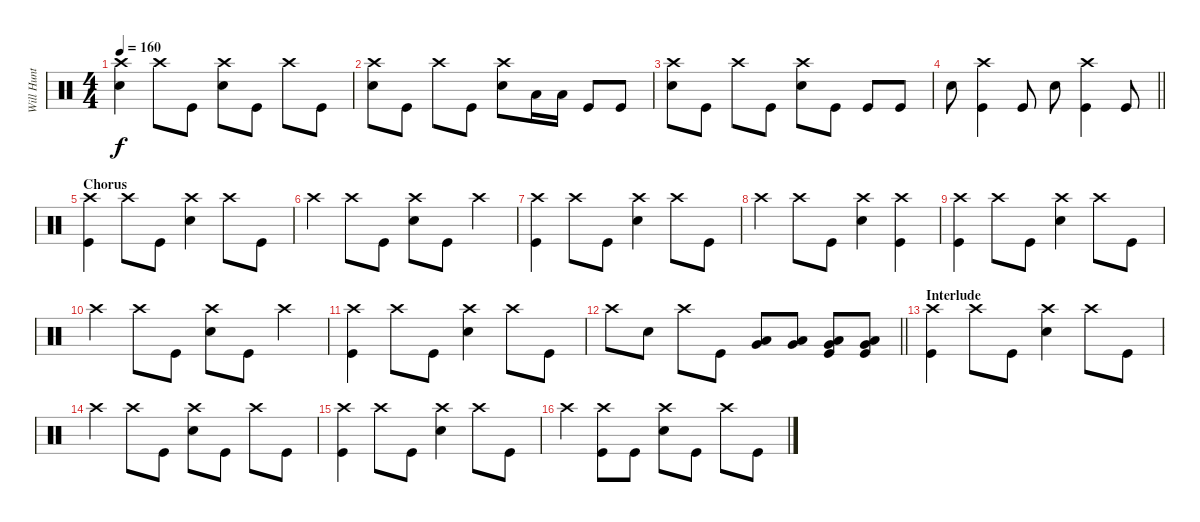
\track ("Will Hunt" "Will Hunt") {instrument percussion}
\staff {score}
\articulation defaults
\ts (4 4)
\tempo 160
\clef neutral
\ks c
("Crash high (hit)" "Snare (hit) 2").4{dy f} "Crash high (hit)".8 "Kick (hit)".8 ("Crash high (hit)" "Snare (hit) 2").8 "Kick (hit)".8 "Crash high (hit)".8 "Kick (hit)".8 |
("Crash high (hit)" "Snare (hit) 2").8 "Kick (hit)".8 "Crash high (hit)".8 "Kick (hit)".8 ("Crash high (hit)" "Snare (hit) 2").8 "Low Floor Tom (hit)".16 "Low Floor Tom (hit)".16 "Kick (hit)".8 "Kick (hit)".8 |
("Crash high (hit)" "Snare (hit) 2").8 "Kick (hit)".8 "Crash high (hit)".8 "Kick (hit)".8 ("Crash high (hit)" "Snare (hit) 2").8 "Kick (hit)".8 "Kick (hit)".8 "Kick (hit)".8 |
\barLineRight lightlight "Snare (hit) 2".8
("Crash high (hit)" "Kick (hit)").4 "Kick (hit)".8 "Snare (hit) 2".8 ("Crash high (hit)" "Kick (hit)").4 "Kick (hit)".8 |
\section ("" "Chorus")
("Crash high (hit)" "Kick (hit)").4 "Crash high (hit)".8 "Kick (hit)".8 ("Crash high (hit)" "Snare (hit) 2").4 "Crash high (hit)".8 "Kick (hit)".8 |
"Crash high (hit)".4 "Crash high (hit)".8 "Kick (hit)".8 ("Crash high (hit)" "Snare (hit) 2").8 "Kick (hit)".8 "Crash high (hit)".4 |
("Crash high (hit)" "Kick (hit)").4 "Crash high (hit)".8 "Kick (hit)".8 ("Crash high (hit)" "Snare (hit) 2").4 "Crash high (hit)".8 "Kick (hit)".8 |
"Crash high (hit)".4 "Crash high (hit)".8 "Kick (hit)".8 ("Crash high (hit)" "Snare (hit) 2").4 ("Crash high (hit)" "Kick (hit)").4 |
("Crash high (hit)" "Kick (hit)").4 "Crash high (hit)".8 "Kick (hit)".8 ("Crash high (hit)" "Snare (hit) 2").4 "Crash high (hit)".8 "Kick (hit)".8 |
"Crash high (hit)".4 "Crash high (hit)".8 "Kick (hit)".8 ("Crash high (hit)" "Snare (hit) 2").8 "Kick (hit)".8 "Crash high (hit)".4 |
("Crash high (hit)" "Kick (hit)").4 "Crash high (hit)".8 "Kick (hit)".8 ("Crash high (hit)" "Snare (hit) 2").4 "Crash high (hit)".8 "Kick (hit)".8 |
\barLineRight lightlight "Crash high (hit)".8 "Snare (hit) 2".8 "Crash high (hit)".8 "Kick (hit)".8
("Very Low Tom (hit)" "Low Floor Tom (hit)").8 ("Very Low Tom (hit)" "Low Floor Tom (hit)").8 ("Very Low Tom (hit)" "Low Floor Tom (hit)" "Kick (hit)").8 ("Very Low Tom (hit)" "Low Floor Tom (hit)" "Kick (hit)").8 |
\section ("" "Interlude")
("Crash high (hit)" "Kick (hit)").4 "Crash high (hit)".8 "Kick (hit)".8 ("Crash high (hit)" "Snare (hit) 2").4 "Crash high (hit)".8 "Kick (hit)".8 |
"Crash high (hit)".4 "Crash high (hit)".8 "Kick (hit)".8 ("Crash high (hit)" "Snare (hit) 2").8 "Kick (hit)".8 "Crash high (hit)".8 "Kick (hit)".8 |
("Crash high (hit)" "Kick (hit)").4 "Crash high (hit)".8 "Kick (hit)".8 ("Crash high (hit)" "Snare (hit) 2").4 "Crash high (hit)".8 "Kick (hit)".8 |
"Crash high (hit)".4 ("Crash high (hit)" "Kick (hit)").8 "Kick (hit)".8 ("Crash high (hit)" "Snare (hit) 2").8 "Kick (hit)".8 "Crash high (hit)".8 "Kick (hit)".8
